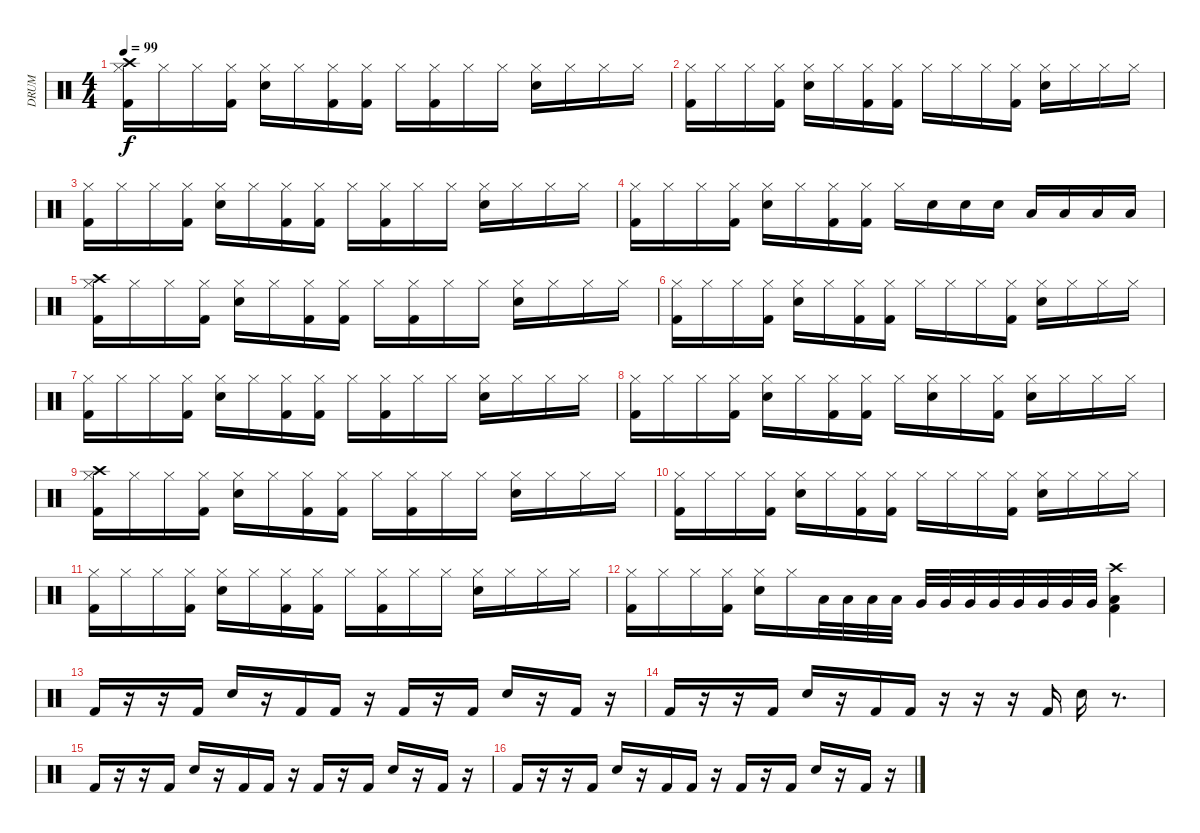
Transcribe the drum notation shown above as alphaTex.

\track ("DRUM" "DRUM") {instrument percussion}
\staff {score}
\articulation defaults
\ts (4 4)
\tempo 99
\clef neutral
\ks c
("Crash high (hit)" "Hi-Hat (closed)" "Kick (hit) 2").16{dy f} "Hi-Hat (closed)".16 "Hi-Hat (closed)".16 ("Hi-Hat (closed)" "Kick (hit) 2").16 ("Hi-Hat (closed)" "Snare (hit) 2").16 "Hi-Hat (closed)".16 ("Hi-Hat (closed)" "Kick (hit) 2").16 ("Hi-Hat (closed)" "Kick (hit) 2").16 "Hi-Hat (closed)".16 ("Hi-Hat (closed)" "Kick (hit) 2").16 "Hi-Hat (closed)".16 "Hi-Hat (closed)".16 ("Hi-Hat (closed)" "Snare (hit) 2").16 "Hi-Hat (closed)".16 "Hi-Hat (closed)".16 "Hi-Hat (closed)".16 |
("Hi-Hat (closed)" "Kick (hit) 2").16 "Hi-Hat (closed)".16 "Hi-Hat (closed)".16 ("Hi-Hat (closed)" "Kick (hit) 2").16 ("Hi-Hat (closed)" "Snare (hit) 2").16 "Hi-Hat (closed)".16 ("Hi-Hat (closed)" "Kick (hit) 2").16 ("Hi-Hat (closed)" "Kick (hit) 2").16 "Hi-Hat (closed)".16 "Hi-Hat (closed)".16 "Hi-Hat (closed)".16 ("Hi-Hat (closed)" "Kick (hit) 2").16 ("Hi-Hat (closed)" "Snare (hit) 2").16 "Hi-Hat (closed)".16 "Hi-Hat (closed)".16 "Hi-Hat (closed)".16 |
("Hi-Hat (closed)" "Kick (hit) 2").16 "Hi-Hat (closed)".16 "Hi-Hat (closed)".16 ("Hi-Hat (closed)" "Kick (hit) 2").16 ("Hi-Hat (closed)" "Snare (hit) 2").16 "Hi-Hat (closed)".16 ("Hi-Hat (closed)" "Kick (hit) 2").16 ("Hi-Hat (closed)" "Kick (hit) 2").16 "Hi-Hat (closed)".16 ("Hi-Hat (closed)" "Kick (hit) 2").16 "Hi-Hat (closed)".16 "Hi-Hat (closed)".16 ("Hi-Hat (closed)" "Snare (hit) 2").16 "Hi-Hat (closed)".16 "Hi-Hat (closed)".16 "Hi-Hat (closed)".16 |
("Hi-Hat (closed)" "Kick (hit) 2").16 "Hi-Hat (closed)".16 "Hi-Hat (closed)".16 ("Hi-Hat (closed)" "Kick (hit) 2").16 ("Hi-Hat (closed)" "Snare (hit) 2").16 "Hi-Hat (closed)".16 ("Hi-Hat (closed)" "Kick (hit) 2").16 ("Hi-Hat (closed)" "Kick (hit) 2").16 "Hi-Hat (closed)".16 "Snare (hit) 2".16 "Snare (hit) 2".16 "Snare (hit) 2".16 "Low Tom (hit)".16 "Low Tom (hit)".16 "Low Floor Tom (hit)".16 "Low Floor Tom (hit)".16 |
("Crash high (hit)" "Hi-Hat (closed)" "Kick (hit) 2").16 "Hi-Hat (closed)".16 "Hi-Hat (closed)".16 ("Hi-Hat (closed)" "Kick (hit) 2").16 ("Hi-Hat (closed)" "Snare (hit) 2").16 "Hi-Hat (closed)".16 ("Hi-Hat (closed)" "Kick (hit) 2").16 ("Hi-Hat (closed)" "Kick (hit) 2").16 "Hi-Hat (closed)".16 ("Hi-Hat (closed)" "Kick (hit) 2").16 "Hi-Hat (closed)".16 "Hi-Hat (closed)".16 ("Hi-Hat (closed)" "Snare (hit) 2").16 "Hi-Hat (closed)".16 "Hi-Hat (closed)".16 "Hi-Hat (closed)".16 |
("Hi-Hat (closed)" "Kick (hit) 2").16 "Hi-Hat (closed)".16 "Hi-Hat (closed)".16 ("Hi-Hat (closed)" "Kick (hit) 2").16 ("Hi-Hat (closed)" "Snare (hit) 2").16 "Hi-Hat (closed)".16 ("Hi-Hat (closed)" "Kick (hit) 2").16 ("Hi-Hat (closed)" "Kick (hit) 2").16 "Hi-Hat (closed)".16 "Hi-Hat (closed)".16 "Hi-Hat (closed)".16 ("Hi-Hat (closed)" "Kick (hit) 2").16 ("Hi-Hat (closed)" "Snare (hit) 2").16 "Hi-Hat (closed)".16 "Hi-Hat (closed)".16 "Hi-Hat (closed)".16 |
("Hi-Hat (closed)" "Kick (hit) 2").16 "Hi-Hat (closed)".16 "Hi-Hat (closed)".16 ("Hi-Hat (closed)" "Kick (hit) 2").16 ("Hi-Hat (closed)" "Snare (hit) 2").16 "Hi-Hat (closed)".16 ("Hi-Hat (closed)" "Kick (hit) 2").16 ("Hi-Hat (closed)" "Kick (hit) 2").16 "Hi-Hat (closed)".16 ("Hi-Hat (closed)" "Kick (hit) 2").16 "Hi-Hat (closed)".16 "Hi-Hat (closed)".16 ("Hi-Hat (closed)" "Snare (hit) 2").16 "Hi-Hat (closed)".16 "Hi-Hat (closed)".16 "Hi-Hat (closed)".16 |
("Hi-Hat (closed)" "Kick (hit) 2").16 "Hi-Hat (closed)".16 "Hi-Hat (closed)".16 ("Hi-Hat (closed)" "Kick (hit) 2").16 ("Hi-Hat (closed)" "Snare (hit) 2").16 "Hi-Hat (closed)".16 ("Hi-Hat (closed)" "Kick (hit) 2").16 ("Hi-Hat (closed)" "Kick (hit) 2").16 "Hi-Hat (closed)".16 ("Hi-Hat (closed)" "Snare (hit) 2").16 "Hi-Hat (closed)".16 ("Hi-Hat (closed)" "Kick (hit) 2").16 ("Hi-Hat (closed)" "Snare (hit) 2").16 "Hi-Hat (closed)".16 "Hi-Hat (closed)".16 "Hi-Hat (closed)".16 |
("Crash high (hit)" "Hi-Hat (closed)" "Kick (hit) 2").16 "Hi-Hat (closed)".16 "Hi-Hat (closed)".16 ("Hi-Hat (closed)" "Kick (hit) 2").16 ("Hi-Hat (closed)" "Snare (hit) 2").16 "Hi-Hat (closed)".16 ("Hi-Hat (closed)" "Kick (hit) 2").16 ("Hi-Hat (closed)" "Kick (hit) 2").16 "Hi-Hat (closed)".16 ("Hi-Hat (closed)" "Kick (hit) 2").16 "Hi-Hat (closed)".16 "Hi-Hat (closed)".16 ("Hi-Hat (closed)" "Snare (hit) 2").16 "Hi-Hat (closed)".16 "Hi-Hat (closed)".16 "Hi-Hat (closed)".16 |
("Hi-Hat (closed)" "Kick (hit) 2").16 "Hi-Hat (closed)".16 "Hi-Hat (closed)".16 ("Hi-Hat (closed)" "Kick (hit) 2").16 ("Hi-Hat (closed)" "Snare (hit) 2").16 "Hi-Hat (closed)".16 ("Hi-Hat (closed)" "Kick (hit) 2").16 ("Hi-Hat (closed)" "Kick (hit) 2").16 "Hi-Hat (closed)".16 "Hi-Hat (closed)".16 "Hi-Hat (closed)".16 ("Hi-Hat (closed)" "Kick (hit) 2").16 ("Hi-Hat (closed)" "Snare (hit) 2").16 "Hi-Hat (closed)".16 "Hi-Hat (closed)".16 "Hi-Hat (closed)".16 |
("Hi-Hat (closed)" "Kick (hit) 2").16 "Hi-Hat (closed)".16 "Hi-Hat (closed)".16 ("Hi-Hat (closed)" "Kick (hit) 2").16 ("Hi-Hat (closed)" "Snare (hit) 2").16 "Hi-Hat (closed)".16 ("Hi-Hat (closed)" "Kick (hit) 2").16 ("Hi-Hat (closed)" "Kick (hit) 2").16 "Hi-Hat (closed)".16 ("Hi-Hat (closed)" "Kick (hit) 2").16 "Hi-Hat (closed)".16 "Hi-Hat (closed)".16 ("Hi-Hat (closed)" "Snare (hit) 2").16 "Hi-Hat (closed)".16 "Hi-Hat (closed)".16 "Hi-Hat (closed)".16 |
("Hi-Hat (closed)" "Kick (hit) 2").16 "Hi-Hat (closed)".16 "Hi-Hat (closed)".16 ("Hi-Hat (closed)" "Kick (hit) 2").16 ("Hi-Hat (closed)" "Snare (hit) 2").16 "Hi-Hat (closed)".16 "Low Tom (hit)".32 "Low Tom (hit)".32 "Low Tom (hit)".32 "Low Tom (hit)".32 "Very Low Tom (hit)".32 "Very Low Tom (hit)".32 "Very Low Tom (hit)".32 "Very Low Tom (hit)".32 "Very Low Tom (hit)".32 "Very Low Tom (hit)".32 "Very Low Tom (hit)".32 "Very Low Tom (hit)".32 ("Crash high (hit)" "Low Floor Tom (hit)" "Kick (hit) 2").4 |
"Kick (hit) 2".16 r.16 r.16 "Kick (hit) 2".16 "Snare (hit) 2".16 r.16 "Kick (hit) 2".16 "Kick (hit) 2".16 r.16 "Kick (hit) 2".16 r.16 "Kick (hit) 2".16 "Snare (hit) 2".16 r.16 "Kick (hit) 2".16 r.16 |
"Kick (hit) 2".16 r.16 r.16 "Kick (hit) 2".16 "Snare (hit) 2".16 r.16 "Kick (hit) 2".16 "Kick (hit) 2".16 r.16 r.16 r.16 "Kick (hit) 2".16 "Snare (hit) 2".16 r.8{d} |
"Kick (hit) 2".16 r.16 r.16 "Kick (hit) 2".16 "Snare (hit) 2".16 r.16 "Kick (hit) 2".16 "Kick (hit) 2".16 r.16 "Kick (hit) 2".16 r.16 "Kick (hit) 2".16 "Snare (hit) 2".16 r.16 "Kick (hit) 2".16 r.16 |
"Kick (hit) 2".16 r.16 r.16 "Kick (hit) 2".16 "Snare (hit) 2".16 r.16 "Kick (hit) 2".16 "Kick (hit) 2".16 r.16 "Kick (hit) 2".16 r.16 "Kick (hit) 2".16 "Snare (hit) 2".16 r.16 "Kick (hit) 2".16 r.16
